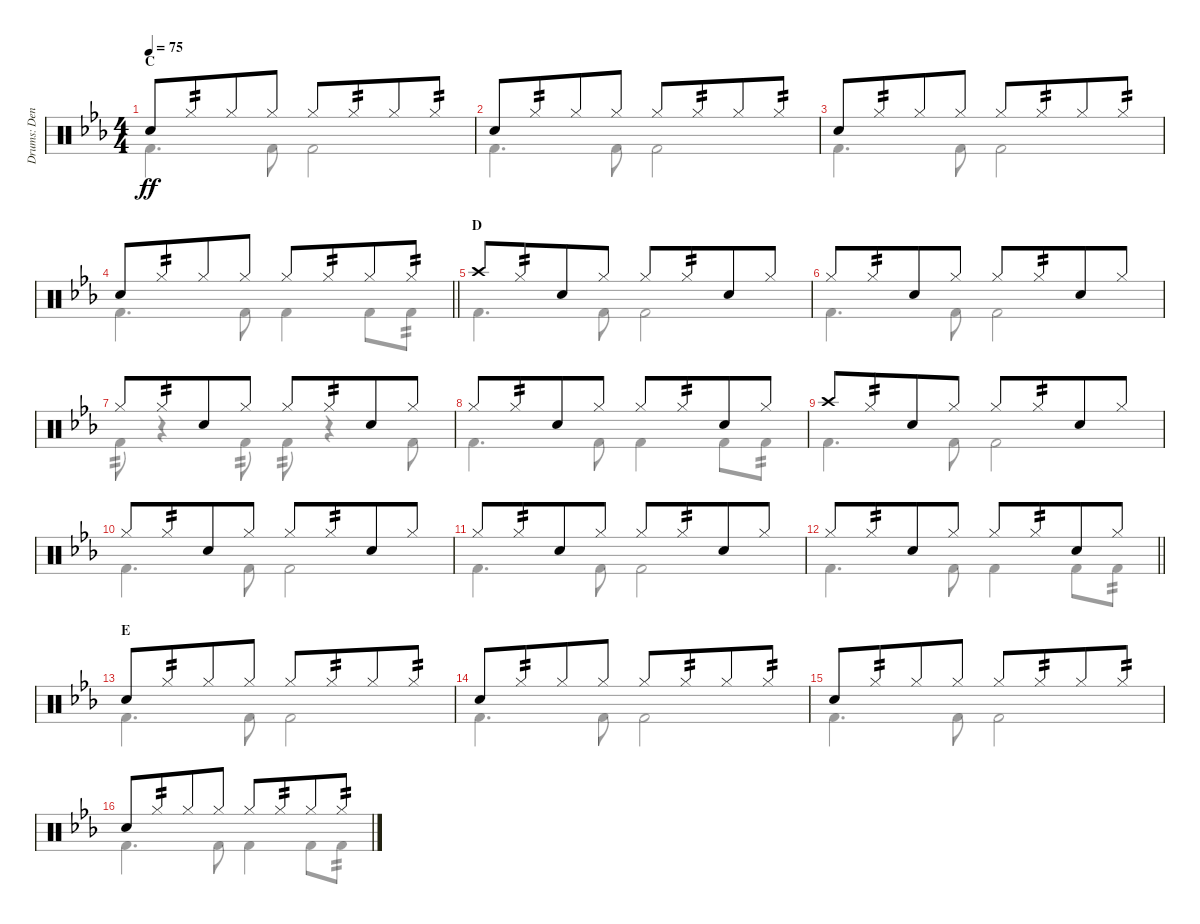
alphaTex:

\track ("Drums: Denny" "Drums: Den") {instrument percussion}
\staff {score}
\articulation defaults
\voice
\ts (4 4)
\section ("" "C")
\tempo 75
\clef neutral
\ks eb "Snare (hit) 2".8{dy ff} "Hi-Hat (closed)".8{tp 2 beam merge} "Hi-Hat (closed)".8 "Hi-Hat (closed)".8 "Hi-Hat (closed)".8 "Hi-Hat (closed)".8{tp 2 beam merge} "Hi-Hat (closed)".8 "Hi-Hat (closed)".8{tp 2}
|
"Snare (hit) 2".8 "Hi-Hat (closed)".8{tp 2 beam merge} "Hi-Hat (closed)".8 "Hi-Hat (closed)".8 "Hi-Hat (closed)".8 "Hi-Hat (closed)".8{tp 2 beam merge} "Hi-Hat (closed)".8 "Hi-Hat (closed)".8{tp 2} |
"Snare (hit) 2".8 "Hi-Hat (closed)".8{tp 2 beam merge} "Hi-Hat (closed)".8 "Hi-Hat (closed)".8 "Hi-Hat (closed)".8 "Hi-Hat (closed)".8{tp 2 beam merge} "Hi-Hat (closed)".8 "Hi-Hat (closed)".8{tp 2} |
\barLineRight lightlight "Snare (hit) 2".8 "Hi-Hat (closed)".8{tp 2 beam merge} "Hi-Hat (closed)".8 "Hi-Hat (closed)".8 "Hi-Hat (closed)".8 "Hi-Hat (closed)".8{tp 2 beam merge} "Hi-Hat (closed)".8 "Hi-Hat (closed)".8{tp 2}
|
\section ("" "D")
"Crash high (hit)".8 "Hi-Hat (closed)".8{tp 2 beam merge} "Snare (hit) 2".8 "Hi-Hat (closed)".8 "Hi-Hat (closed)".8 "Hi-Hat (closed)".8{tp 2 beam merge} "Snare (hit) 2".8 "Hi-Hat (closed)".8 |
"Hi-Hat (closed)".8 "Hi-Hat (closed)".8{tp 2 beam merge} "Snare (hit) 2".8 "Hi-Hat (closed)".8 "Hi-Hat (closed)".8 "Hi-Hat (closed)".8{tp 2 beam merge} "Snare (hit) 2".8 "Hi-Hat (closed)".8 |
"Hi-Hat (closed)".8 "Hi-Hat (closed)".8{tp 2 beam merge} "Snare (hit) 2".8 "Hi-Hat (closed)".8 "Hi-Hat (closed)".8 "Hi-Hat (closed)".8{tp 2 beam merge} "Snare (hit) 2".8 "Hi-Hat (closed)".8 |
"Hi-Hat (closed)".8 "Hi-Hat (closed)".8{tp 2 beam merge} "Snare (hit) 2".8 "Hi-Hat (closed)".8 "Hi-Hat (closed)".8 "Hi-Hat (closed)".8{tp 2 beam merge} "Snare (hit) 2".8 "Hi-Hat (closed)".8 |
"Crash high (hit)".8 "Hi-Hat (closed)".8{tp 2 beam merge} "Snare (hit) 2".8 "Hi-Hat (closed)".8 "Hi-Hat (closed)".8 "Hi-Hat (closed)".8{tp 2 beam merge} "Snare (hit) 2".8 "Hi-Hat (closed)".8 |
"Hi-Hat (closed)".8 "Hi-Hat (closed)".8{tp 2 beam merge} "Snare (hit) 2".8 "Hi-Hat (closed)".8 "Hi-Hat (closed)".8 "Hi-Hat (closed)".8{tp 2 beam merge} "Snare (hit) 2".8 "Hi-Hat (closed)".8 |
"Hi-Hat (closed)".8 "Hi-Hat (closed)".8{tp 2 beam merge} "Snare (hit) 2".8 "Hi-Hat (closed)".8 "Hi-Hat (closed)".8 "Hi-Hat (closed)".8{tp 2 beam merge} "Snare (hit) 2".8 "Hi-Hat (closed)".8 |
\barLineRight lightlight "Hi-Hat (closed)".8 "Hi-Hat (closed)".8{tp 2 beam merge} "Snare (hit) 2".8 "Hi-Hat (closed)".8 "Hi-Hat (closed)".8 "Hi-Hat (closed)".8{tp 2 beam merge} "Snare (hit) 2".8 "Hi-Hat (closed)".8
|
\section ("" "E")
"Snare (hit) 2".8 "Hi-Hat (closed)".8{tp 2 beam merge} "Hi-Hat (closed)".8 "Hi-Hat (closed)".8 "Hi-Hat (closed)".8 "Hi-Hat (closed)".8{tp 2 beam merge} "Hi-Hat (closed)".8 "Hi-Hat (closed)".8{tp 2} |
"Snare (hit) 2".8 "Hi-Hat (closed)".8{tp 2 beam merge} "Hi-Hat (closed)".8 "Hi-Hat (closed)".8 "Hi-Hat (closed)".8 "Hi-Hat (closed)".8{tp 2 beam merge} "Hi-Hat (closed)".8 "Hi-Hat (closed)".8{tp 2} |
"Snare (hit) 2".8 "Hi-Hat (closed)".8{tp 2 beam merge} "Hi-Hat (closed)".8 "Hi-Hat (closed)".8 "Hi-Hat (closed)".8 "Hi-Hat (closed)".8{tp 2 beam merge} "Hi-Hat (closed)".8 "Hi-Hat (closed)".8{tp 2} |
"Snare (hit) 2".8 "Hi-Hat (closed)".8{tp 2 beam merge} "Hi-Hat (closed)".8 "Hi-Hat (closed)".8 "Hi-Hat (closed)".8 "Hi-Hat (closed)".8{tp 2 beam merge} "Hi-Hat (closed)".8 "Hi-Hat (closed)".8{tp 2}
\voice
\clef neutral
\ottava regular
\simile none
\ks eb "Kick (hit) 2".4{d dy ff} "Kick (hit) 2".8 "Kick (hit) 2".2
|
"Kick (hit) 2".4{d} "Kick (hit) 2".8 "Kick (hit) 2".2 |
"Kick (hit) 2".4{d} "Kick (hit) 2".8 "Kick (hit) 2".2 |
\barLineRight lightlight "Kick (hit) 2".4{d} "Kick (hit) 2".8 "Kick (hit) 2".4 "Kick (hit) 2".8 "Kick (hit) 2".8{tp 2}
|
"Kick (hit) 2".4{d} "Kick (hit) 2".8 "Kick (hit) 2".2 |
"Kick (hit) 2".4{d} "Kick (hit) 2".8 "Kick (hit) 2".2 |
"Kick (hit) 2".8{tp 2} r.4 "Kick (hit) 2".8{tp 2} "Kick (hit) 2".8{tp 2} r.4 "Kick (hit) 2".8 |
"Kick (hit) 2".4{d} "Kick (hit) 2".8 "Kick (hit) 2".4 "Kick (hit) 2".8 "Kick (hit) 2".8{tp 2} |
"Kick (hit) 2".4{d} "Kick (hit) 2".8 "Kick (hit) 2".2 |
"Kick (hit) 2".4{d} "Kick (hit) 2".8 "Kick (hit) 2".2 |
"Kick (hit) 2".4{d} "Kick (hit) 2".8 "Kick (hit) 2".2 |
\barLineRight lightlight "Kick (hit) 2".4{d} "Kick (hit) 2".8 "Kick (hit) 2".4 "Kick (hit) 2".8 "Kick (hit) 2".8{tp 2}
|
"Kick (hit) 2".4{d} "Kick (hit) 2".8 "Kick (hit) 2".2 |
"Kick (hit) 2".4{d} "Kick (hit) 2".8 "Kick (hit) 2".2 |
"Kick (hit) 2".4{d} "Kick (hit) 2".8 "Kick (hit) 2".2 |
"Kick (hit) 2".4{d} "Kick (hit) 2".8 "Kick (hit) 2".4 "Kick (hit) 2".8 "Kick (hit) 2".8{tp 2}
